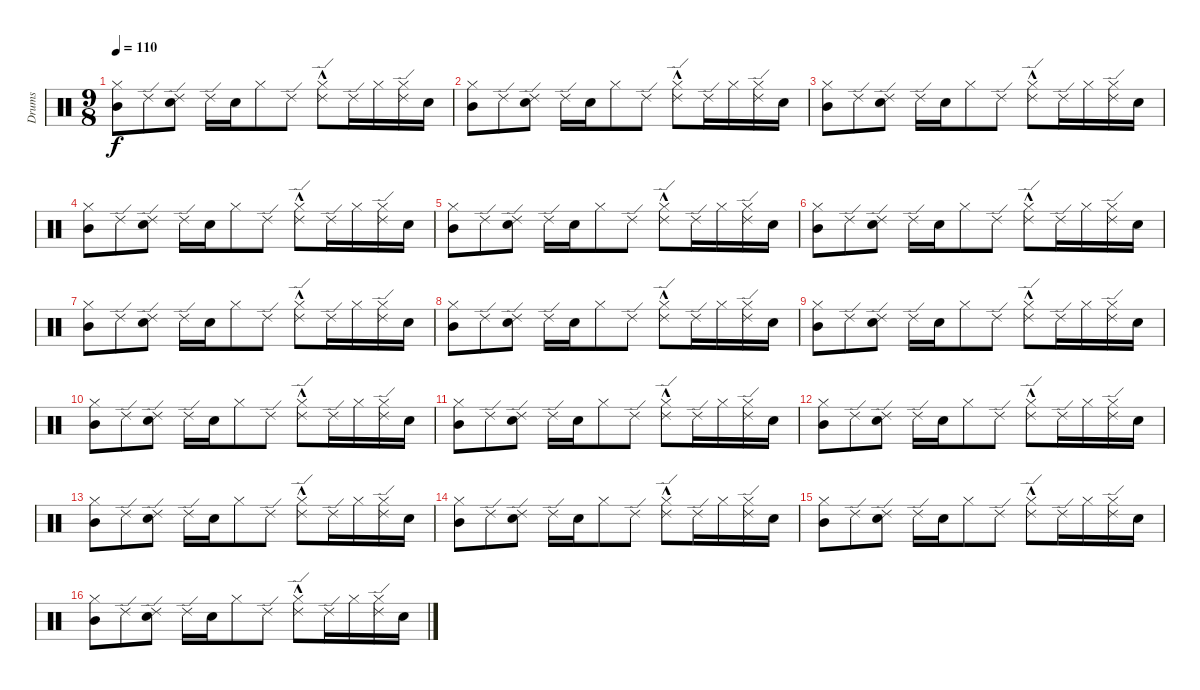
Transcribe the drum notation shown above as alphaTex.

\track ("Drums" "Drums") {instrument percussion}
\staff {score}
\articulation defaults
\ts (9 8)
\tempo 110
\clef neutral
\ks c
("Hi-Hat (closed)" "Mid Tom (hit)").8{dy f} "Ride (edge) 2".8 ("Snare (hit) 2" "Ride (edge) 2").8 "Ride (edge) 2".16 "Snare (hit) 2".16 "Hi-Hat (closed)".8 "Ride (edge) 2".8 ("Hi-Hat (closed)"{hac} "Ride (edge) 2").8 "Ride (edge) 2".16 "Hi-Hat (closed)".16 ("Hi-Hat (closed)" "Ride (edge) 2").16 "Snare (hit) 2".16 |
("Hi-Hat (closed)" "Mid Tom (hit)").8 "Ride (edge) 2".8 ("Snare (hit) 2" "Ride (edge) 2").8 "Ride (edge) 2".16 "Snare (hit) 2".16 "Hi-Hat (closed)".8 "Ride (edge) 2".8 ("Hi-Hat (closed)"{hac} "Ride (edge) 2").8 "Ride (edge) 2".16 "Hi-Hat (closed)".16 ("Hi-Hat (closed)" "Ride (edge) 2").16 "Snare (hit) 2".16 |
("Hi-Hat (closed)" "Mid Tom (hit)").8 "Ride (edge) 2".8 ("Snare (hit) 2" "Ride (edge) 2").8 "Ride (edge) 2".16 "Snare (hit) 2".16 "Hi-Hat (closed)".8 "Ride (edge) 2".8 ("Hi-Hat (closed)"{hac} "Ride (edge) 2").8 "Ride (edge) 2".16 "Hi-Hat (closed)".16 ("Hi-Hat (closed)" "Ride (edge) 2").16 "Snare (hit) 2".16 |
("Hi-Hat (closed)" "Mid Tom (hit)").8 "Ride (edge) 2".8 ("Snare (hit) 2" "Ride (edge) 2").8 "Ride (edge) 2".16 "Snare (hit) 2".16 "Hi-Hat (closed)".8 "Ride (edge) 2".8 ("Hi-Hat (closed)"{hac} "Ride (edge) 2").8 "Ride (edge) 2".16 "Hi-Hat (closed)".16 ("Hi-Hat (closed)" "Ride (edge) 2").16 "Snare (hit) 2".16 |
("Hi-Hat (closed)" "Mid Tom (hit)").8 "Ride (edge) 2".8 ("Snare (hit) 2" "Ride (edge) 2").8 "Ride (edge) 2".16 "Snare (hit) 2".16 "Hi-Hat (closed)".8 "Ride (edge) 2".8 ("Hi-Hat (closed)"{hac} "Ride (edge) 2").8 "Ride (edge) 2".16 "Hi-Hat (closed)".16 ("Hi-Hat (closed)" "Ride (edge) 2").16 "Snare (hit) 2".16 |
("Hi-Hat (closed)" "Mid Tom (hit)").8 "Ride (edge) 2".8 ("Snare (hit) 2" "Ride (edge) 2").8 "Ride (edge) 2".16 "Snare (hit) 2".16 "Hi-Hat (closed)".8 "Ride (edge) 2".8 ("Hi-Hat (closed)"{hac} "Ride (edge) 2").8 "Ride (edge) 2".16 "Hi-Hat (closed)".16 ("Hi-Hat (closed)" "Ride (edge) 2").16 "Snare (hit) 2".16 |
("Hi-Hat (closed)" "Mid Tom (hit)").8 "Ride (edge) 2".8 ("Snare (hit) 2" "Ride (edge) 2").8 "Ride (edge) 2".16 "Snare (hit) 2".16 "Hi-Hat (closed)".8 "Ride (edge) 2".8 ("Hi-Hat (closed)"{hac} "Ride (edge) 2").8 "Ride (edge) 2".16 "Hi-Hat (closed)".16 ("Hi-Hat (closed)" "Ride (edge) 2").16 "Snare (hit) 2".16 |
("Hi-Hat (closed)" "Mid Tom (hit)").8 "Ride (edge) 2".8 ("Snare (hit) 2" "Ride (edge) 2").8 "Ride (edge) 2".16 "Snare (hit) 2".16 "Hi-Hat (closed)".8 "Ride (edge) 2".8 ("Hi-Hat (closed)"{hac} "Ride (edge) 2").8 "Ride (edge) 2".16 "Hi-Hat (closed)".16 ("Hi-Hat (closed)" "Ride (edge) 2").16 "Snare (hit) 2".16 |
("Hi-Hat (closed)" "Mid Tom (hit)").8 "Ride (edge) 2".8 ("Snare (hit) 2" "Ride (edge) 2").8 "Ride (edge) 2".16 "Snare (hit) 2".16 "Hi-Hat (closed)".8 "Ride (edge) 2".8 ("Hi-Hat (closed)"{hac} "Ride (edge) 2").8 "Ride (edge) 2".16 "Hi-Hat (closed)".16 ("Hi-Hat (closed)" "Ride (edge) 2").16 "Snare (hit) 2".16 |
("Hi-Hat (closed)" "Mid Tom (hit)").8 "Ride (edge) 2".8 ("Snare (hit) 2" "Ride (edge) 2").8 "Ride (edge) 2".16 "Snare (hit) 2".16 "Hi-Hat (closed)".8 "Ride (edge) 2".8 ("Hi-Hat (closed)"{hac} "Ride (edge) 2").8 "Ride (edge) 2".16 "Hi-Hat (closed)".16 ("Hi-Hat (closed)" "Ride (edge) 2").16 "Snare (hit) 2".16 |
("Hi-Hat (closed)" "Mid Tom (hit)").8 "Ride (edge) 2".8 ("Snare (hit) 2" "Ride (edge) 2").8 "Ride (edge) 2".16 "Snare (hit) 2".16 "Hi-Hat (closed)".8 "Ride (edge) 2".8 ("Hi-Hat (closed)"{hac} "Ride (edge) 2").8 "Ride (edge) 2".16 "Hi-Hat (closed)".16 ("Hi-Hat (closed)" "Ride (edge) 2").16 "Snare (hit) 2".16 |
("Hi-Hat (closed)" "Mid Tom (hit)").8 "Ride (edge) 2".8 ("Snare (hit) 2" "Ride (edge) 2").8 "Ride (edge) 2".16 "Snare (hit) 2".16 "Hi-Hat (closed)".8 "Ride (edge) 2".8 ("Hi-Hat (closed)"{hac} "Ride (edge) 2").8 "Ride (edge) 2".16 "Hi-Hat (closed)".16 ("Hi-Hat (closed)" "Ride (edge) 2").16 "Snare (hit) 2".16 |
("Hi-Hat (closed)" "Mid Tom (hit)").8 "Ride (edge) 2".8 ("Snare (hit) 2" "Ride (edge) 2").8 "Ride (edge) 2".16 "Snare (hit) 2".16 "Hi-Hat (closed)".8 "Ride (edge) 2".8 ("Hi-Hat (closed)"{hac} "Ride (edge) 2").8 "Ride (edge) 2".16 "Hi-Hat (closed)".16 ("Hi-Hat (closed)" "Ride (edge) 2").16 "Snare (hit) 2".16 |
("Hi-Hat (closed)" "Mid Tom (hit)").8 "Ride (edge) 2".8 ("Snare (hit) 2" "Ride (edge) 2").8 "Ride (edge) 2".16 "Snare (hit) 2".16 "Hi-Hat (closed)".8 "Ride (edge) 2".8 ("Hi-Hat (closed)"{hac} "Ride (edge) 2").8 "Ride (edge) 2".16 "Hi-Hat (closed)".16 ("Hi-Hat (closed)" "Ride (edge) 2").16 "Snare (hit) 2".16 |
("Hi-Hat (closed)" "Mid Tom (hit)").8 "Ride (edge) 2".8 ("Snare (hit) 2" "Ride (edge) 2").8 "Ride (edge) 2".16 "Snare (hit) 2".16 "Hi-Hat (closed)".8 "Ride (edge) 2".8 ("Hi-Hat (closed)"{hac} "Ride (edge) 2").8 "Ride (edge) 2".16 "Hi-Hat (closed)".16 ("Hi-Hat (closed)" "Ride (edge) 2").16 "Snare (hit) 2".16 |
("Hi-Hat (closed)" "Mid Tom (hit)").8 "Ride (edge) 2".8 ("Snare (hit) 2" "Ride (edge) 2").8 "Ride (edge) 2".16 "Snare (hit) 2".16 "Hi-Hat (closed)".8 "Ride (edge) 2".8 ("Hi-Hat (closed)"{hac} "Ride (edge) 2").8 "Ride (edge) 2".16 "Hi-Hat (closed)".16 ("Hi-Hat (closed)" "Ride (edge) 2").16 "Snare (hit) 2".16
